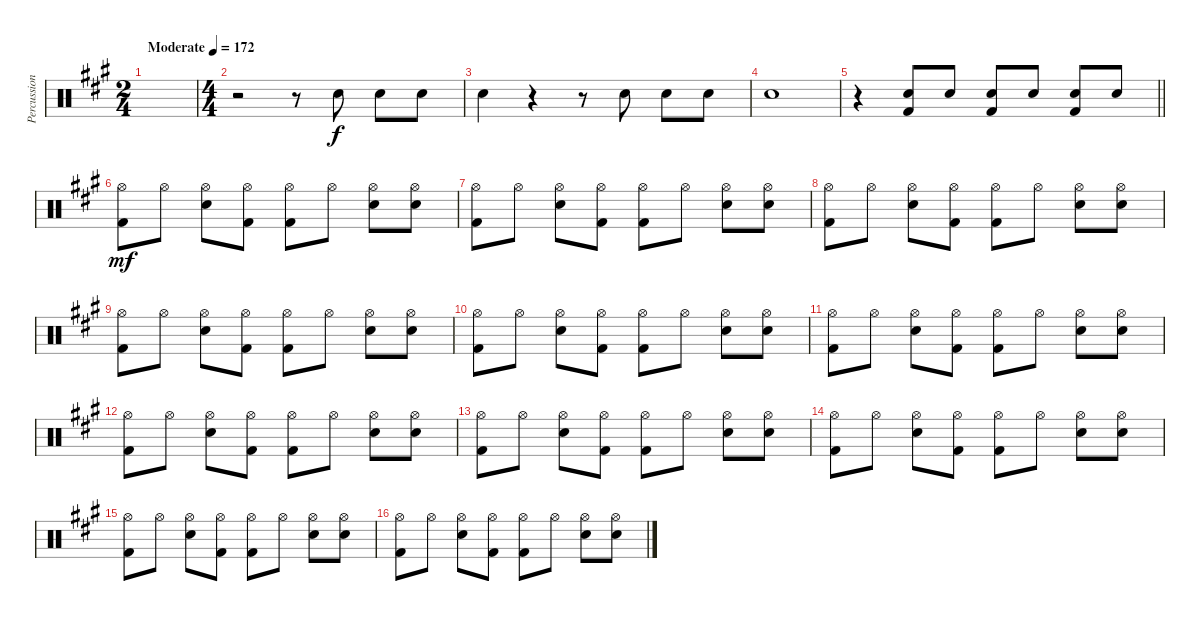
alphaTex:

\track ("Percussion" "Percussion") {instrument percussion}
\staff {score}
\articulation defaults
\ts (2 4)
\tempo (172 "Moderate")
\clef neutral
\ks a
|
\ts (4 4)
r.2 r.8 "Snare (hit) 2".8 "Snare (hit) 2".8 "Snare (hit) 2".8 |
"Snare (hit) 2".4 r.4 r.8 "Snare (hit) 2".8 "Snare (hit) 2".8 "Snare (hit) 2".8 |
"Snare (hit) 2".1 |
\barLineRight lightlight
r.4 ("Snare (hit) 2" "Kick (hit) 2").8 "Snare (hit) 2".8 ("Snare (hit) 2" "Kick (hit) 2").8 "Snare (hit) 2".8 ("Snare (hit) 2" "Kick (hit) 2").8 "Snare (hit) 2".8 |
("Hi-Hat (open)" "Kick (hit) 2").8{dy mf} "Hi-Hat (open)".8 ("Hi-Hat (open)" "Snare (hit) 2").8 ("Hi-Hat (open)" "Kick (hit) 2").8 ("Hi-Hat (open)" "Kick (hit) 2").8 "Hi-Hat (open)".8 ("Hi-Hat (open)" "Snare (hit) 2").8 ("Hi-Hat (open)" "Snare (hit) 2").8 |
("Hi-Hat (open)" "Kick (hit) 2").8 "Hi-Hat (open)".8 ("Hi-Hat (open)" "Snare (hit) 2").8 ("Hi-Hat (open)" "Kick (hit) 2").8 ("Hi-Hat (open)" "Kick (hit) 2").8 "Hi-Hat (open)".8 ("Hi-Hat (open)" "Snare (hit) 2").8 ("Hi-Hat (open)" "Snare (hit) 2").8 |
("Hi-Hat (open)" "Kick (hit) 2").8 "Hi-Hat (open)".8 ("Hi-Hat (open)" "Snare (hit) 2").8 ("Hi-Hat (open)" "Kick (hit) 2").8 ("Hi-Hat (open)" "Kick (hit) 2").8 "Hi-Hat (open)".8 ("Hi-Hat (open)" "Snare (hit) 2").8 ("Hi-Hat (open)" "Snare (hit) 2").8 |
("Hi-Hat (open)" "Kick (hit) 2").8 "Hi-Hat (open)".8 ("Hi-Hat (open)" "Snare (hit) 2").8 ("Hi-Hat (open)" "Kick (hit) 2").8 ("Hi-Hat (open)" "Kick (hit) 2").8 "Hi-Hat (open)".8 ("Hi-Hat (open)" "Snare (hit) 2").8 ("Hi-Hat (open)" "Snare (hit) 2").8 |
("Hi-Hat (open)" "Kick (hit) 2").8 "Hi-Hat (open)".8 ("Hi-Hat (open)" "Snare (hit) 2").8 ("Hi-Hat (open)" "Kick (hit) 2").8 ("Hi-Hat (open)" "Kick (hit) 2").8 "Hi-Hat (open)".8 ("Hi-Hat (open)" "Snare (hit) 2").8 ("Hi-Hat (open)" "Snare (hit) 2").8 |
("Hi-Hat (open)" "Kick (hit) 2").8 "Hi-Hat (open)".8 ("Hi-Hat (open)" "Snare (hit) 2").8 ("Hi-Hat (open)" "Kick (hit) 2").8 ("Hi-Hat (open)" "Kick (hit) 2").8 "Hi-Hat (open)".8 ("Hi-Hat (open)" "Snare (hit) 2").8 ("Hi-Hat (open)" "Snare (hit) 2").8 |
("Hi-Hat (open)" "Kick (hit) 2").8 "Hi-Hat (open)".8 ("Hi-Hat (open)" "Snare (hit) 2").8 ("Hi-Hat (open)" "Kick (hit) 2").8 ("Hi-Hat (open)" "Kick (hit) 2").8 "Hi-Hat (open)".8 ("Hi-Hat (open)" "Snare (hit) 2").8 ("Hi-Hat (open)" "Snare (hit) 2").8 |
("Hi-Hat (open)" "Kick (hit) 2").8 "Hi-Hat (open)".8 ("Hi-Hat (open)" "Snare (hit) 2").8 ("Hi-Hat (open)" "Kick (hit) 2").8 ("Hi-Hat (open)" "Kick (hit) 2").8 "Hi-Hat (open)".8 ("Hi-Hat (open)" "Snare (hit) 2").8 ("Hi-Hat (open)" "Snare (hit) 2").8 |
("Hi-Hat (open)" "Kick (hit) 2").8 "Hi-Hat (open)".8 ("Hi-Hat (open)" "Snare (hit) 2").8 ("Hi-Hat (open)" "Kick (hit) 2").8 ("Hi-Hat (open)" "Kick (hit) 2").8 "Hi-Hat (open)".8 ("Hi-Hat (open)" "Snare (hit) 2").8 ("Hi-Hat (open)" "Snare (hit) 2").8 |
("Hi-Hat (open)" "Kick (hit) 2").8 "Hi-Hat (open)".8 ("Hi-Hat (open)" "Snare (hit) 2").8 ("Hi-Hat (open)" "Kick (hit) 2").8 ("Hi-Hat (open)" "Kick (hit) 2").8 "Hi-Hat (open)".8 ("Hi-Hat (open)" "Snare (hit) 2").8 ("Hi-Hat (open)" "Snare (hit) 2").8 |
("Hi-Hat (open)" "Kick (hit) 2").8 "Hi-Hat (open)".8 ("Hi-Hat (open)" "Snare (hit) 2").8 ("Hi-Hat (open)" "Kick (hit) 2").8 ("Hi-Hat (open)" "Kick (hit) 2").8 "Hi-Hat (open)".8 ("Hi-Hat (open)" "Snare (hit) 2").8 ("Hi-Hat (open)" "Snare (hit) 2").8
